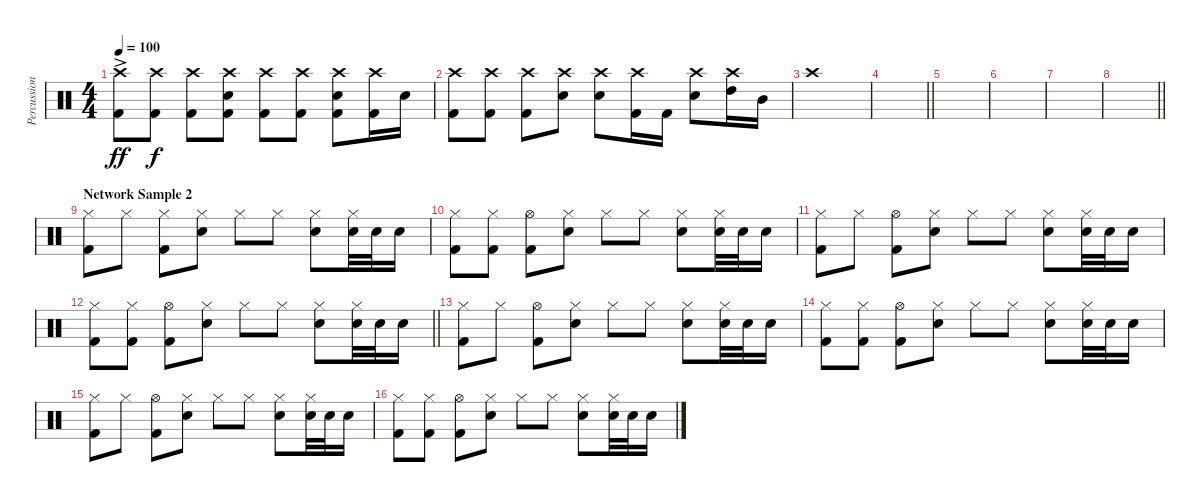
\track ("Percussion" "Percussion") {instrument percussion}
\staff {score}
\articulation defaults
\ts (4 4)
\tempo 100
\clef neutral
\ks c
("Crash high (hit)"{ac} "Kick (hit) 2").8{dy ff} ("Crash high (hit)" "Kick (hit) 2").8{dy f} ("Crash high (hit)" "Kick (hit) 2").8 ("Electric Snare (hit)" "Crash high (hit)" "Kick (hit) 2").8 ("Crash high (hit)" "Kick (hit) 2").8 ("Crash high (hit)" "Kick (hit) 2").8 ("Electric Snare (hit)" "Crash high (hit)" "Kick (hit) 2").8 ("Crash high (hit)" "Kick (hit) 2").16 "Electric Snare (hit)".16 |
("Crash high (hit)" "Kick (hit) 2").8 ("Crash high (hit)" "Kick (hit) 2").8 ("Crash high (hit)" "Kick (hit) 2").8 ("Electric Snare (hit)" "Crash high (hit)").8 ("Electric Snare (hit)" "Crash high (hit)").8 ("Crash high (hit)" "Kick (hit) 2").16 "Kick (hit) 2".16 ("Electric Snare (hit)" "Crash high (hit)").8 ("High Tom (hit)" "Crash high (hit)").16 "Mid Tom (hit)".16 |
"Crash high (hit)".1 |
\barLineRight lightlight
|
|
|
|
\barLineRight lightlight
|
\section ("" "Network Sample 2")
("Hi-Hat (closed)" "Kick (hit) 2").8 "Hi-Hat (closed)".8 ("Hi-Hat (closed)" "Kick (hit) 2").8 ("Electric Snare (hit)" "Hi-Hat (closed)").8 "Hi-Hat (closed)".8 "Hi-Hat (closed)".8 ("Electric Snare (hit)" "Hi-Hat (closed)").8 ("Electric Snare (hit)" "Hi-Hat (closed)").32 "Electric Snare (hit)".32 "Electric Snare (hit)".16 |
("Hi-Hat (closed)" "Kick (hit) 2").8 ("Hi-Hat (closed)" "Kick (hit) 2").8 ("Hi-Hat (open)" "Kick (hit) 2").8 ("Electric Snare (hit)" "Hi-Hat (closed)").8 "Hi-Hat (closed)".8 "Hi-Hat (closed)".8 ("Electric Snare (hit)" "Hi-Hat (closed)").8 ("Electric Snare (hit)" "Hi-Hat (closed)").32 "Electric Snare (hit)".32 "Electric Snare (hit)".16 |
("Hi-Hat (closed)" "Kick (hit) 2").8 "Hi-Hat (closed)".8 ("Hi-Hat (open)" "Kick (hit) 2").8 ("Electric Snare (hit)" "Hi-Hat (closed)").8 "Hi-Hat (closed)".8 "Hi-Hat (closed)".8 ("Electric Snare (hit)" "Hi-Hat (closed)").8 ("Electric Snare (hit)" "Hi-Hat (closed)").32 "Electric Snare (hit)".32 "Electric Snare (hit)".16 |
\barLineRight lightlight
("Hi-Hat (closed)" "Kick (hit) 2").8 ("Hi-Hat (closed)" "Kick (hit) 2").8 ("Hi-Hat (open)" "Kick (hit) 2").8 ("Electric Snare (hit)" "Hi-Hat (closed)").8 "Hi-Hat (closed)".8 "Hi-Hat (closed)".8 ("Electric Snare (hit)" "Hi-Hat (closed)").8 ("Electric Snare (hit)" "Hi-Hat (closed)").32 "Electric Snare (hit)".32 "Electric Snare (hit)".16 |
("Hi-Hat (closed)" "Kick (hit) 2").8 "Hi-Hat (closed)".8 ("Hi-Hat (open)" "Kick (hit) 2").8 ("Electric Snare (hit)" "Hi-Hat (closed)").8 "Hi-Hat (closed)".8 "Hi-Hat (closed)".8 ("Electric Snare (hit)" "Hi-Hat (closed)").8 ("Electric Snare (hit)" "Hi-Hat (closed)").32 "Electric Snare (hit)".32 "Electric Snare (hit)".16 |
("Hi-Hat (closed)" "Kick (hit) 2").8 ("Hi-Hat (closed)" "Kick (hit) 2").8 ("Hi-Hat (open)" "Kick (hit) 2").8 ("Electric Snare (hit)" "Hi-Hat (closed)").8 "Hi-Hat (closed)".8 "Hi-Hat (closed)".8 ("Electric Snare (hit)" "Hi-Hat (closed)").8 ("Electric Snare (hit)" "Hi-Hat (closed)").32 "Electric Snare (hit)".32 "Electric Snare (hit)".16 |
("Hi-Hat (closed)" "Kick (hit) 2").8 "Hi-Hat (closed)".8 ("Hi-Hat (open)" "Kick (hit) 2").8 ("Electric Snare (hit)" "Hi-Hat (closed)").8 "Hi-Hat (closed)".8 "Hi-Hat (closed)".8 ("Electric Snare (hit)" "Hi-Hat (closed)").8 ("Electric Snare (hit)" "Hi-Hat (closed)").32 "Electric Snare (hit)".32 "Electric Snare (hit)".16 |
("Hi-Hat (closed)" "Kick (hit) 2").8 ("Hi-Hat (closed)" "Kick (hit) 2").8 ("Hi-Hat (open)" "Kick (hit) 2").8 ("Electric Snare (hit)" "Hi-Hat (closed)").8 "Hi-Hat (closed)".8 "Hi-Hat (closed)".8 ("Electric Snare (hit)" "Hi-Hat (closed)").8 ("Electric Snare (hit)" "Hi-Hat (closed)").32 "Electric Snare (hit)".32 "Electric Snare (hit)".16
